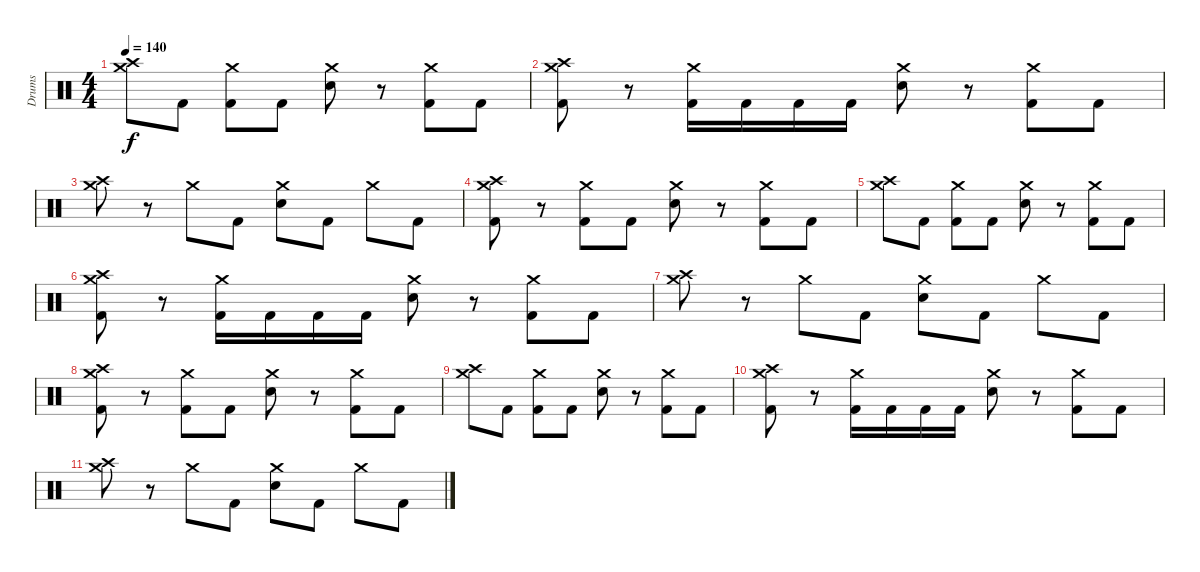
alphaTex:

\track ("Drums" "Drums") {instrument percussion}
\staff {score}
\articulation defaults
\ts (4 4)
\tempo 140
\clef neutral
\ks c
("Crash medium (hit)" "Crash high (hit)").8{dy f} "Kick (hit) 2".8 ("Crash medium (hit)" "Kick (hit) 2").8 "Kick (hit) 2".8 ("Crash medium (hit)" "Snare (hit) 2").8 r.8 ("Crash medium (hit)" "Kick (hit) 2").8 "Kick (hit) 2".8 |
("Crash medium (hit)" "Crash high (hit)" "Kick (hit) 2").8 r.8 ("Crash medium (hit)" "Kick (hit) 2").16 "Kick (hit) 2".16 "Kick (hit) 2".16 "Kick (hit) 2".16 ("Crash medium (hit)" "Snare (hit) 2").8 r.8 ("Crash medium (hit)" "Kick (hit) 2").8 "Kick (hit) 2".8 |
("Crash medium (hit)" "Crash high (hit)").8 r.8 "Crash medium (hit)".8 "Kick (hit) 2".8 ("Crash medium (hit)" "Snare (hit) 2").8 "Kick (hit) 2".8 "Crash medium (hit)".8 "Kick (hit) 2".8 |
("Crash medium (hit)" "Crash high (hit)" "Kick (hit) 2").8 r.8 ("Crash medium (hit)" "Kick (hit) 2").8 "Kick (hit) 2".8 ("Crash medium (hit)" "Snare (hit) 2").8 r.8 ("Crash medium (hit)" "Kick (hit) 2").8 "Kick (hit) 2".8 |
("Crash medium (hit)" "Crash high (hit)").8 "Kick (hit) 2".8 ("Crash medium (hit)" "Kick (hit) 2").8 "Kick (hit) 2".8 ("Crash medium (hit)" "Snare (hit) 2").8 r.8 ("Crash medium (hit)" "Kick (hit) 2").8 "Kick (hit) 2".8 |
("Crash medium (hit)" "Crash high (hit)" "Kick (hit) 2").8 r.8 ("Crash medium (hit)" "Kick (hit) 2").16 "Kick (hit) 2".16 "Kick (hit) 2".16 "Kick (hit) 2".16 ("Crash medium (hit)" "Snare (hit) 2").8 r.8 ("Crash medium (hit)" "Kick (hit) 2").8 "Kick (hit) 2".8 |
("Crash medium (hit)" "Crash high (hit)").8 r.8 "Crash medium (hit)".8 "Kick (hit) 2".8 ("Crash medium (hit)" "Snare (hit) 2").8 "Kick (hit) 2".8 "Crash medium (hit)".8 "Kick (hit) 2".8 |
("Crash medium (hit)" "Crash high (hit)" "Kick (hit) 2").8 r.8 ("Crash medium (hit)" "Kick (hit) 2").8 "Kick (hit) 2".8 ("Crash medium (hit)" "Snare (hit) 2").8 r.8 ("Crash medium (hit)" "Kick (hit) 2").8 "Kick (hit) 2".8 |
("Crash medium (hit)" "Crash high (hit)").8 "Kick (hit) 2".8 ("Crash medium (hit)" "Kick (hit) 2").8 "Kick (hit) 2".8 ("Crash medium (hit)" "Snare (hit) 2").8 r.8 ("Crash medium (hit)" "Kick (hit) 2").8 "Kick (hit) 2".8 |
("Crash medium (hit)" "Crash high (hit)" "Kick (hit) 2").8 r.8 ("Crash medium (hit)" "Kick (hit) 2").16 "Kick (hit) 2".16 "Kick (hit) 2".16 "Kick (hit) 2".16 ("Crash medium (hit)" "Snare (hit) 2").8 r.8 ("Crash medium (hit)" "Kick (hit) 2").8 "Kick (hit) 2".8 |
("Crash medium (hit)" "Crash high (hit)").8 r.8 "Crash medium (hit)".8 "Kick (hit) 2".8 ("Crash medium (hit)" "Snare (hit) 2").8 "Kick (hit) 2".8 "Crash medium (hit)".8 "Kick (hit) 2".8
